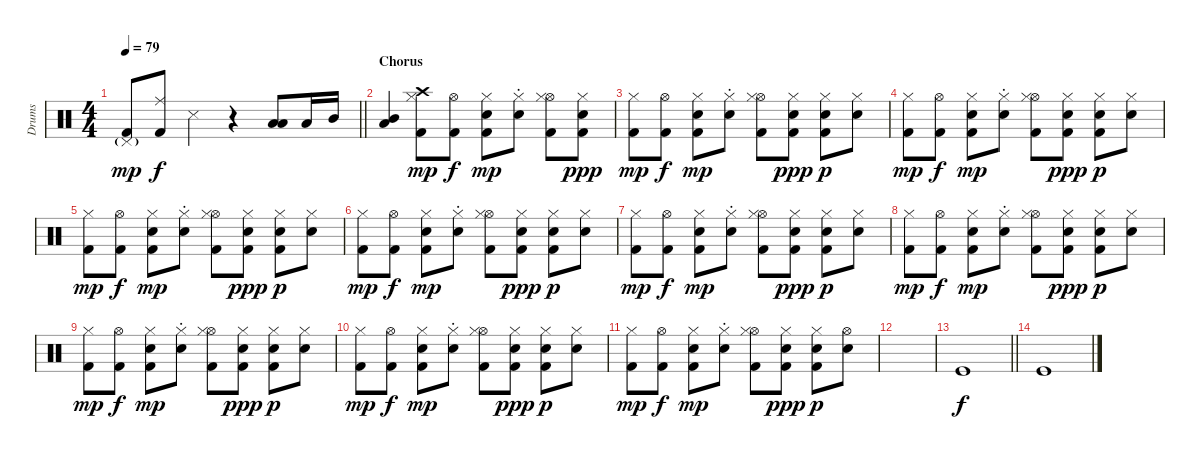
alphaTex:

\track ("Drums" "Drums") {instrument percussion}
\staff {score}
\articulation defaults
\ts (4 4)
\tempo 79
\clef neutral
\barLineRight lightlight
\ks c
("Pedal Hi-Hat (hit)"{g} "Kick (hit) 2").8{dy mp} ("Ride (middle)" "Kick (hit) 2").8{dy f} "Snare (side stick) 3".4 r.4 ("Low Tom (hit)" "Low Tom (hit)").8 "Low Tom (hit)".16 "Mid Tom (hit)".16 |
\section ("" "Chorus")
("Mid Tom (hit)" "Low Tom (hit)").4 ("Crash high (hit)" "Hi-Hat (closed)" "Kick (hit) 2").8{dy mp} ("Hi-Hat (open)" "Kick (hit) 2").8{dy f} ("Snare (hit) 2" "Hi-Hat (closed)" "Kick (hit) 2").8{dy mp} ("Snare (hit) 2" "Hi-Hat (closed)"{st}).8 ("Hi-Hat (open)" "Hi-Hat (closed)" "Kick (hit) 2").8 ("Snare (hit) 2" "Hi-Hat (closed)" "Kick (hit) 2").8{dy ppp} |
("Hi-Hat (closed)" "Kick (hit) 2").8{dy mp} ("Hi-Hat (open)" "Kick (hit) 2").8{dy f} ("Snare (hit) 2" "Hi-Hat (closed)" "Kick (hit) 2").8{dy mp} ("Snare (hit) 2" "Hi-Hat (closed)"{st}).8 ("Hi-Hat (open)" "Hi-Hat (closed)" "Kick (hit) 2").8 ("Snare (hit) 2" "Hi-Hat (closed)" "Kick (hit) 2").8{dy ppp} ("Snare (hit) 2" "Hi-Hat (closed)" "Kick (hit) 2").8{dy p} ("Snare (hit) 2" "Hi-Hat (closed)").8 |
("Hi-Hat (closed)" "Kick (hit) 2").8{dy mp} ("Hi-Hat (open)" "Kick (hit) 2").8{dy f} ("Snare (hit) 2" "Hi-Hat (closed)" "Kick (hit) 2").8{dy mp} ("Snare (hit) 2" "Hi-Hat (closed)"{st}).8 ("Hi-Hat (open)" "Hi-Hat (closed)" "Kick (hit) 2").8 ("Snare (hit) 2" "Hi-Hat (closed)" "Kick (hit) 2").8{dy ppp} ("Snare (hit) 2" "Hi-Hat (closed)" "Kick (hit) 2").8{dy p} ("Snare (hit) 2" "Hi-Hat (closed)").8 |
("Hi-Hat (closed)" "Kick (hit) 2").8{dy mp} ("Hi-Hat (open)" "Kick (hit) 2").8{dy f} ("Snare (hit) 2" "Hi-Hat (closed)" "Kick (hit) 2").8{dy mp} ("Snare (hit) 2" "Hi-Hat (closed)"{st}).8 ("Hi-Hat (open)" "Hi-Hat (closed)" "Kick (hit) 2").8 ("Snare (hit) 2" "Hi-Hat (closed)" "Kick (hit) 2").8{dy ppp} ("Snare (hit) 2" "Hi-Hat (closed)" "Kick (hit) 2").8{dy p} ("Snare (hit) 2" "Hi-Hat (closed)").8 |
("Hi-Hat (closed)" "Kick (hit) 2").8{dy mp} ("Hi-Hat (open)" "Kick (hit) 2").8{dy f} ("Snare (hit) 2" "Hi-Hat (closed)" "Kick (hit) 2").8{dy mp} ("Snare (hit) 2" "Hi-Hat (closed)"{st}).8 ("Hi-Hat (open)" "Hi-Hat (closed)" "Kick (hit) 2").8 ("Snare (hit) 2" "Hi-Hat (closed)" "Kick (hit) 2").8{dy ppp} ("Snare (hit) 2" "Hi-Hat (closed)" "Kick (hit) 2").8{dy p} ("Snare (hit) 2" "Hi-Hat (closed)").8 |
("Hi-Hat (closed)" "Kick (hit) 2").8{dy mp} ("Hi-Hat (open)" "Kick (hit) 2").8{dy f} ("Snare (hit) 2" "Hi-Hat (closed)" "Kick (hit) 2").8{dy mp} ("Snare (hit) 2" "Hi-Hat (closed)"{st}).8 ("Hi-Hat (open)" "Hi-Hat (closed)" "Kick (hit) 2").8 ("Snare (hit) 2" "Hi-Hat (closed)" "Kick (hit) 2").8{dy ppp} ("Snare (hit) 2" "Hi-Hat (closed)" "Kick (hit) 2").8{dy p} ("Snare (hit) 2" "Hi-Hat (closed)").8 |
("Hi-Hat (closed)" "Kick (hit) 2").8{dy mp} ("Hi-Hat (open)" "Kick (hit) 2").8{dy f} ("Snare (hit) 2" "Hi-Hat (closed)" "Kick (hit) 2").8{dy mp} ("Snare (hit) 2" "Hi-Hat (closed)"{st}).8 ("Hi-Hat (open)" "Hi-Hat (closed)" "Kick (hit) 2").8 ("Snare (hit) 2" "Hi-Hat (closed)" "Kick (hit) 2").8{dy ppp} ("Snare (hit) 2" "Hi-Hat (closed)" "Kick (hit) 2").8{dy p} ("Snare (hit) 2" "Hi-Hat (closed)").8 |
("Hi-Hat (closed)" "Kick (hit) 2").8{dy mp} ("Hi-Hat (open)" "Kick (hit) 2").8{dy f} ("Snare (hit) 2" "Hi-Hat (closed)" "Kick (hit) 2").8{dy mp} ("Snare (hit) 2" "Hi-Hat (closed)"{st}).8 ("Hi-Hat (open)" "Hi-Hat (closed)" "Kick (hit) 2").8 ("Snare (hit) 2" "Hi-Hat (closed)" "Kick (hit) 2").8{dy ppp} ("Snare (hit) 2" "Hi-Hat (closed)" "Kick (hit) 2").8{dy p} ("Snare (hit) 2" "Hi-Hat (closed)").8 |
("Hi-Hat (closed)" "Kick (hit) 2").8{dy mp} ("Hi-Hat (open)" "Kick (hit) 2").8{dy f} ("Snare (hit) 2" "Hi-Hat (closed)" "Kick (hit) 2").8{dy mp} ("Snare (hit) 2" "Hi-Hat (closed)"{st}).8 ("Hi-Hat (open)" "Hi-Hat (closed)" "Kick (hit) 2").8 ("Snare (hit) 2" "Hi-Hat (closed)" "Kick (hit) 2").8{dy ppp} ("Snare (hit) 2" "Hi-Hat (closed)" "Kick (hit) 2").8{dy p} ("Snare (hit) 2" "Hi-Hat (closed)").8 |
("Hi-Hat (closed)" "Kick (hit) 2").8{dy mp} ("Hi-Hat (open)" "Kick (hit) 2").8{dy f} ("Snare (hit) 2" "Hi-Hat (closed)" "Kick (hit) 2").8{dy mp} ("Snare (hit) 2" "Hi-Hat (closed)"{st}).8 ("Hi-Hat (open)" "Hi-Hat (closed)" "Kick (hit) 2").8 ("Snare (hit) 2" "Hi-Hat (closed)" "Kick (hit) 2").8{dy ppp} ("Snare (hit) 2" "Hi-Hat (closed)" "Kick (hit) 2").8{dy p} ("Snare (hit) 2" "Hi-Hat (open)").8 |
|
\barLineRight lightlight "Kick (hit)".1{dy f}
|
"Kick (hit)".1
